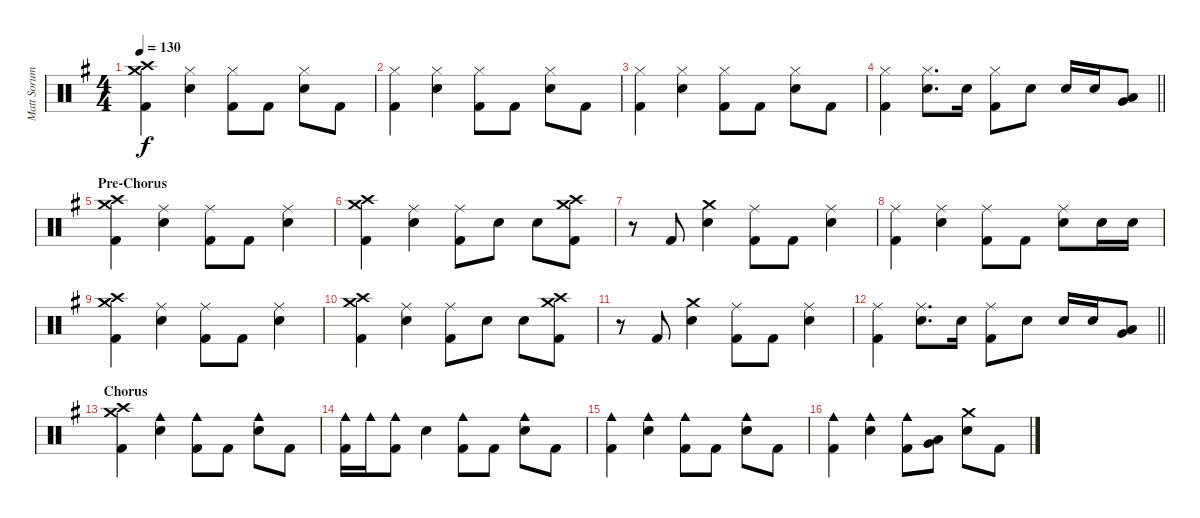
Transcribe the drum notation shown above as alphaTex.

\track ("Matt Sorum - Drums" "Matt Sorum") {instrument percussion}
\staff {score}
\articulation defaults
\ts (4 4)
\tempo 130
\clef neutral
\ks g
("Crash medium (hit)" "Crash high (hit)" "Kick (hit) 2").4{dy f} ("Hi-Hat (closed)" "Snare (hit) 2").4 ("Hi-Hat (closed)" "Kick (hit) 2").8 "Kick (hit) 2".8 ("Hi-Hat (closed)" "Snare (hit) 2").8 "Kick (hit) 2".8 |
("Hi-Hat (closed)" "Kick (hit) 2").4 ("Hi-Hat (closed)" "Snare (hit) 2").4 ("Hi-Hat (closed)" "Kick (hit) 2").8 "Kick (hit) 2".8 ("Hi-Hat (closed)" "Snare (hit) 2").8 "Kick (hit) 2".8 |
("Hi-Hat (closed)" "Kick (hit) 2").4 ("Hi-Hat (closed)" "Snare (hit) 2").4 ("Hi-Hat (closed)" "Kick (hit) 2").8 "Kick (hit) 2".8 ("Hi-Hat (closed)" "Snare (hit) 2").8 "Kick (hit) 2".8 |
\barLineRight lightlight
("Hi-Hat (closed)" "Kick (hit) 2").4 ("Hi-Hat (closed)" "Snare (hit) 2").8{d} "Snare (hit) 2".16 ("Hi-Hat (closed)" "Kick (hit) 2").8 "Snare (hit) 2".8 "Snare (hit) 2".16 "Snare (hit) 2".16 ("Low Tom (hit)" "Very Low Tom (hit)").8 |
\section ("" "Pre-Chorus")
("Crash medium (hit)" "Crash high (hit)" "Kick (hit) 2").4 ("Ride (middle)" "Snare (hit) 2").4 ("Ride (middle)" "Kick (hit) 2").8 "Kick (hit) 2".8 ("Ride (middle)" "Snare (hit) 2").4 |
("Crash medium (hit)" "Crash high (hit)" "Kick (hit) 2").4 ("Ride (middle)" "Snare (hit) 2").4 ("Ride (middle)" "Kick (hit) 2").8 "Snare (hit) 2".8 "Snare (hit) 2".8 ("Crash medium (hit)" "Crash high (hit)" "Kick (hit) 2").8 |
r.8 "Kick (hit) 2".8 ("Crash medium (hit)" "Snare (hit) 2").4 ("Ride (middle)" "Kick (hit) 2").8 "Kick (hit) 2".8 ("Ride (middle)" "Snare (hit) 2").4 |
("Ride (middle)" "Kick (hit) 2").4 ("Ride (middle)" "Snare (hit) 2").4 ("Ride (middle)" "Kick (hit) 2").8 "Kick (hit) 2".8 ("Ride (middle)" "Snare (hit) 2").8 "Snare (hit) 2".16 "Snare (hit) 2".16 |
("Crash medium (hit)" "Crash high (hit)" "Kick (hit) 2").4 ("Ride (middle)" "Snare (hit) 2").4 ("Ride (middle)" "Kick (hit) 2").8 "Kick (hit) 2".8 ("Ride (middle)" "Snare (hit) 2").4 |
("Crash medium (hit)" "Crash high (hit)" "Kick (hit) 2").4 ("Ride (middle)" "Snare (hit) 2").4 ("Ride (middle)" "Kick (hit) 2").8 "Snare (hit) 2".8 "Snare (hit) 2".8 ("Crash medium (hit)" "Crash high (hit)" "Kick (hit) 2").8 |
r.8 "Kick (hit) 2".8 ("Crash medium (hit)" "Snare (hit) 2").4 ("Ride (middle)" "Kick (hit) 2").8 "Kick (hit) 2".8 ("Ride (middle)" "Snare (hit) 2").4 |
\barLineRight lightlight
("Ride (middle)" "Kick (hit) 2").4 ("Ride (middle)" "Snare (hit) 2").8{d} "Snare (hit) 2".16 ("Ride (middle)" "Kick (hit) 2").8 "Snare (hit) 2".8 "Snare (hit) 2".16 "Snare (hit) 2".16 ("Low Tom (hit)" "Very Low Tom (hit)").8 |
\section ("" "Chorus")
("Crash medium (hit)" "Crash high (hit)" "Kick (hit) 2").4 ("Cowbell medium (hit)" "Snare (hit) 2").4 ("Cowbell medium (hit)" "Kick (hit) 2").8 "Kick (hit) 2".8 ("Cowbell medium (hit)" "Snare (hit) 2").8 "Kick (hit) 2".8 |
("Cowbell medium (hit)" "Kick (hit) 2").16 "Cowbell medium (hit)".16 ("Cowbell medium (hit)" "Kick (hit) 2").8 "Snare (hit) 2".4 ("Cowbell medium (hit)" "Kick (hit) 2").8 "Kick (hit) 2".8 ("Cowbell medium (hit)" "Snare (hit) 2").8 "Kick (hit) 2".8 |
("Cowbell medium (hit)" "Kick (hit) 2").4 ("Cowbell medium (hit)" "Snare (hit) 2").4 ("Cowbell medium (hit)" "Kick (hit) 2").8 "Kick (hit) 2".8 ("Cowbell medium (hit)" "Snare (hit) 2").8 "Kick (hit) 2".8 |
("Cowbell medium (hit)" "Kick (hit) 2").4 ("Cowbell medium (hit)" "Snare (hit) 2").4 ("Cowbell medium (hit)" "Kick (hit) 2").8 ("Low Tom (hit)" "Very Low Tom (hit)").8 ("Crash medium (hit)" "Snare (hit) 2").8 "Kick (hit) 2".8
